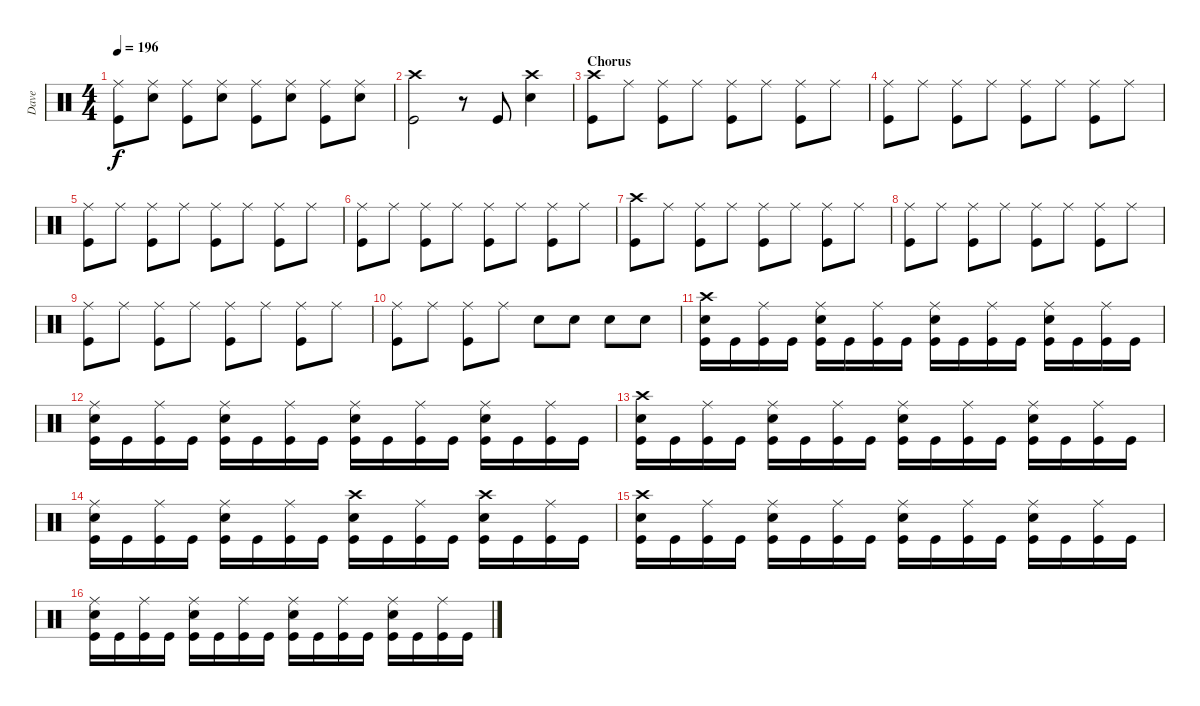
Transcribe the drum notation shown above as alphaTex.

\track ("Dave" "Dave") {instrument percussion}
\staff {score}
\articulation defaults
\ts (4 4)
\tempo 196
\clef neutral
\ks c
("Ride (middle)" "Kick (hit)").8{dy f} ("Ride (middle)" "Snare (hit) 2").8 ("Ride (middle)" "Kick (hit)").8 ("Ride (middle)" "Snare (hit) 2").8 ("Ride (middle)" "Kick (hit)").8 ("Ride (middle)" "Snare (hit) 2").8 ("Ride (middle)" "Kick (hit)").8 ("Ride (middle)" "Snare (hit) 2").8 |
("Crash high (hit)" "Kick (hit)").2 r.8 "Kick (hit)".8 ("Crash high (hit)" "Snare (hit) 2").4 |
\section ("" "Chorus")
("Crash high (hit)" "Kick (hit)").8 "Ride (middle)".8 ("Ride (middle)" "Kick (hit)").8 "Ride (middle)".8 ("Ride (middle)" "Kick (hit)").8 "Ride (middle)".8 ("Ride (middle)" "Kick (hit)").8 "Ride (middle)".8 |
("Ride (middle)" "Kick (hit)").8 "Ride (middle)".8 ("Ride (middle)" "Kick (hit)").8 "Ride (middle)".8 ("Ride (middle)" "Kick (hit)").8 "Ride (middle)".8 ("Ride (middle)" "Kick (hit)").8 "Ride (middle)".8 |
("Ride (middle)" "Kick (hit)").8 "Ride (middle)".8 ("Ride (middle)" "Kick (hit)").8 "Ride (middle)".8 ("Ride (middle)" "Kick (hit)").8 "Ride (middle)".8 ("Ride (middle)" "Kick (hit)").8 "Ride (middle)".8 |
("Ride (middle)" "Kick (hit)").8 "Ride (middle)".8 ("Ride (middle)" "Kick (hit)").8 "Ride (middle)".8 ("Ride (middle)" "Kick (hit)").8 "Ride (middle)".8 ("Ride (middle)" "Kick (hit)").8 "Ride (middle)".8 |
("Crash high (hit)" "Kick (hit)").8 "Ride (middle)".8 ("Ride (middle)" "Kick (hit)").8 "Ride (middle)".8 ("Ride (middle)" "Kick (hit)").8 "Ride (middle)".8 ("Ride (middle)" "Kick (hit)").8 "Ride (middle)".8 |
("Ride (middle)" "Kick (hit)").8 "Ride (middle)".8 ("Ride (middle)" "Kick (hit)").8 "Ride (middle)".8 ("Ride (middle)" "Kick (hit)").8 "Ride (middle)".8 ("Ride (middle)" "Kick (hit)").8 "Ride (middle)".8 |
("Ride (middle)" "Kick (hit)").8 "Ride (middle)".8 ("Ride (middle)" "Kick (hit)").8 "Ride (middle)".8 ("Ride (middle)" "Kick (hit)").8 "Ride (middle)".8 ("Ride (middle)" "Kick (hit)").8 "Ride (middle)".8 |
("Ride (middle)" "Kick (hit)").8 "Ride (middle)".8 ("Ride (middle)" "Kick (hit)").8 "Ride (middle)".8 "Snare (hit) 2".8 "Snare (hit) 2".8 "Snare (hit) 2".8 "Snare (hit) 2".8 |
("Crash high (hit)" "Snare (hit) 2" "Kick (hit)").16 "Kick (hit)".16 ("Ride (middle)" "Kick (hit)").16 "Kick (hit)".16 ("Ride (middle)" "Snare (hit) 2" "Kick (hit)").16 "Kick (hit)".16 ("Ride (middle)" "Kick (hit)").16 "Kick (hit)".16 ("Ride (middle)" "Snare (hit) 2" "Kick (hit)").16 "Kick (hit)".16 ("Ride (middle)" "Kick (hit)").16 "Kick (hit)".16 ("Ride (middle)" "Snare (hit) 2" "Kick (hit)").16 "Kick (hit)".16 ("Ride (middle)" "Kick (hit)").16 "Kick (hit)".16 |
("Ride (middle)" "Snare (hit) 2" "Kick (hit)").16 "Kick (hit)".16 ("Ride (middle)" "Kick (hit)").16 "Kick (hit)".16 ("Ride (middle)" "Snare (hit) 2" "Kick (hit)").16 "Kick (hit)".16 ("Ride (middle)" "Kick (hit)").16 "Kick (hit)".16 ("Ride (middle)" "Snare (hit) 2" "Kick (hit)").16 "Kick (hit)".16 ("Ride (middle)" "Kick (hit)").16 "Kick (hit)".16 ("Ride (middle)" "Snare (hit) 2" "Kick (hit)").16 "Kick (hit)".16 ("Ride (middle)" "Kick (hit)").16 "Kick (hit)".16 |
("Crash high (hit)" "Snare (hit) 2" "Kick (hit)").16 "Kick (hit)".16 ("Ride (middle)" "Kick (hit)").16 "Kick (hit)".16 ("Ride (middle)" "Snare (hit) 2" "Kick (hit)").16 "Kick (hit)".16 ("Ride (middle)" "Kick (hit)").16 "Kick (hit)".16 ("Ride (middle)" "Snare (hit) 2" "Kick (hit)").16 "Kick (hit)".16 ("Ride (middle)" "Kick (hit)").16 "Kick (hit)".16 ("Ride (middle)" "Snare (hit) 2" "Kick (hit)").16 "Kick (hit)".16 ("Ride (middle)" "Kick (hit)").16 "Kick (hit)".16 |
("Ride (middle)" "Snare (hit) 2" "Kick (hit)").16 "Kick (hit)".16 ("Ride (middle)" "Kick (hit)").16 "Kick (hit)".16 ("Ride (middle)" "Snare (hit) 2" "Kick (hit)").16 "Kick (hit)".16 ("Ride (middle)" "Kick (hit)").16 "Kick (hit)".16 ("Crash high (hit)" "Snare (hit) 2" "Kick (hit)").16 "Kick (hit)".16 ("Ride (middle)" "Kick (hit)").16 "Kick (hit)".16 ("Crash high (hit)" "Snare (hit) 2" "Kick (hit)").16 "Kick (hit)".16 ("Ride (middle)" "Kick (hit)").16 "Kick (hit)".16 |
("Crash high (hit)" "Snare (hit) 2" "Kick (hit)").16 "Kick (hit)".16 ("Ride (middle)" "Kick (hit)").16 "Kick (hit)".16 ("Ride (middle)" "Snare (hit) 2" "Kick (hit)").16 "Kick (hit)".16 ("Ride (middle)" "Kick (hit)").16 "Kick (hit)".16 ("Ride (middle)" "Snare (hit) 2" "Kick (hit)").16 "Kick (hit)".16 ("Ride (middle)" "Kick (hit)").16 "Kick (hit)".16 ("Ride (middle)" "Snare (hit) 2" "Kick (hit)").16 "Kick (hit)".16 ("Ride (middle)" "Kick (hit)").16 "Kick (hit)".16 |
("Ride (middle)" "Snare (hit) 2" "Kick (hit)").16 "Kick (hit)".16 ("Ride (middle)" "Kick (hit)").16 "Kick (hit)".16 ("Ride (middle)" "Snare (hit) 2" "Kick (hit)").16 "Kick (hit)".16 ("Ride (middle)" "Kick (hit)").16 "Kick (hit)".16 ("Ride (middle)" "Snare (hit) 2" "Kick (hit)").16 "Kick (hit)".16 ("Ride (middle)" "Kick (hit)").16 "Kick (hit)".16 ("Ride (middle)" "Snare (hit) 2" "Kick (hit)").16 "Kick (hit)".16 ("Ride (middle)" "Kick (hit)").16 "Kick (hit)".16
